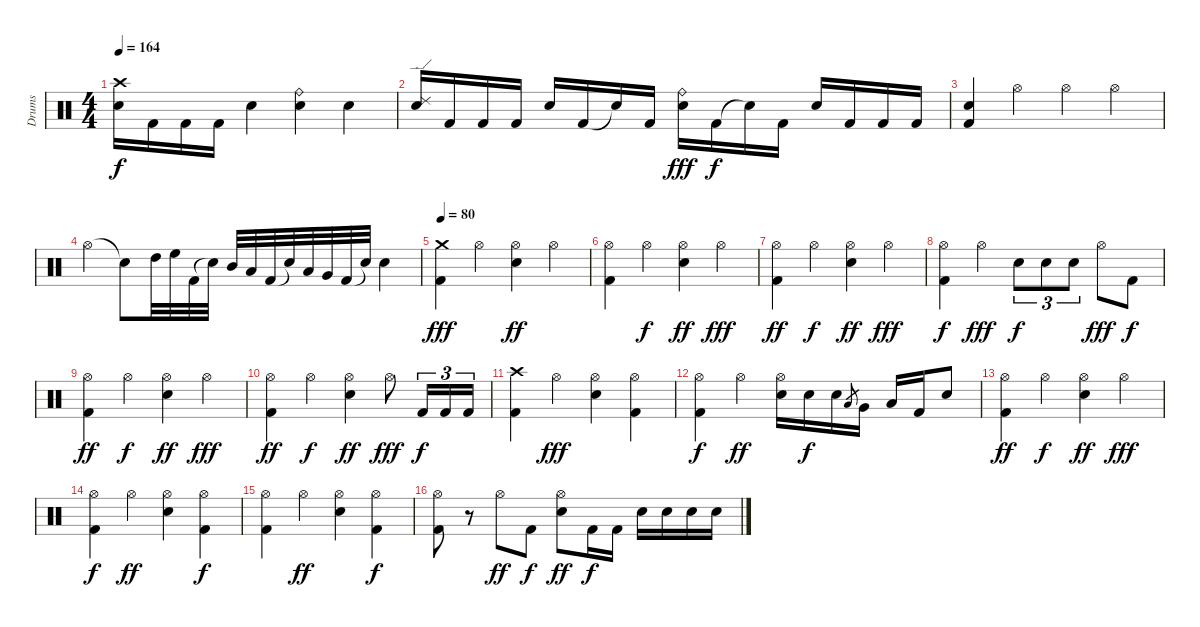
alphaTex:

\track ("Drums" "Drums") {instrument percussion}
\staff {score}
\articulation defaults
\ts (4 4)
\tempo 164
\clef neutral
\ks c
("Crash high (hit)" "Electric Snare (hit)").16{dy f} "Kick (hit) 2".16 "Kick (hit) 2".16 "Kick (hit) 2".16 "Electric Snare (hit)".4 ("Ride (bell)" "Electric Snare (hit)").4 "Electric Snare (hit)".4 |
("Ride (edge) 2" "Electric Snare (hit)").16 "Kick (hit) 2".16 "Kick (hit) 2".16 "Kick (hit) 2".16 "Electric Snare (hit)".16 "Kick (hit) 2".16 "Snare (hit)"{t}.16 "Kick (hit) 2".16 ("Ride (bell)" "Electric Snare (hit)").16{dy fff} "Kick (hit) 2".16{dy f} "Snare (hit)"{t}.16 "Kick (hit) 2".16 "Electric Snare (hit)".16 "Kick (hit) 2".16 "Kick (hit) 2".16 "Kick (hit) 2".16 |
("Electric Snare (hit)" "Kick (hit) 2").4 "Hi-Hat (open)".4 "Hi-Hat (open)".4 "Hi-Hat (open)".4 |
"Hi-Hat (open)".4 "Snare (hit)"{t}.8 "High Tom (hit)".32 "High Floor Tom (hit)".32 "Kick (hit) 2".32 "Snare (hit)"{t}.32 "Mid Tom (hit)".32 "Low Tom (hit)".32 "Kick (hit) 2".32 "Snare (hit)"{t}.32 "Low Floor Tom (hit)".32 "Very Low Tom (hit)".32 "Kick (hit) 2".32 "Snare (hit)"{t}.32 "Electric Snare (hit)".4 |
\tempo 80
("Crash medium (hit)" "Kick (hit) 2").4{dy fff} "Hi-Hat (open)".4 ("Hi-Hat (open)" "Electric Snare (hit)").4{dy ff} "Hi-Hat (open)".4 |
("Hi-Hat (open)" "Kick (hit) 2").4 "Hi-Hat (open)".4{dy f} ("Hi-Hat (open)" "Electric Snare (hit)").4{dy ff} "Hi-Hat (open)".4{dy fff} |
("Hi-Hat (open)" "Kick (hit) 2").4{dy ff} "Hi-Hat (open)".4{dy f} ("Hi-Hat (open)" "Electric Snare (hit)").4{dy ff} "Hi-Hat (open)".4{dy fff} |
("Hi-Hat (open)" "Kick (hit) 2").4{dy f} "Hi-Hat (open)".4{dy fff} "Electric Snare (hit)".8{tu (3 2) dy f} "Electric Snare (hit)".8{tu (3 2)} "Electric Snare (hit)".8{tu (3 2)} "Hi-Hat (open)".8{dy fff} "Kick (hit) 2".8{dy f} |
("Hi-Hat (open)" "Kick (hit) 2").4{dy ff} "Hi-Hat (open)".4{dy f} ("Hi-Hat (open)" "Electric Snare (hit)").4{dy ff} "Hi-Hat (open)".4{dy fff} |
("Hi-Hat (open)" "Kick (hit) 2").4{dy ff} "Hi-Hat (open)".4{dy f} ("Hi-Hat (open)" "Electric Snare (hit)").4{dy ff} "Hi-Hat (open)".8{dy fff} "Kick (hit) 2".16{tu (3 2) dy f} "Kick (hit) 2".16{tu (3 2)} "Kick (hit) 2".16{tu (3 2)} |
("Crash high (hit)" "Kick (hit) 2").4 "Hi-Hat (open)".4{dy fff} ("Hi-Hat (open)" "Electric Snare (hit)").4 ("Hi-Hat (open)" "Kick (hit) 2").4 |
("Hi-Hat (open)" "Kick (hit) 2").4{dy f} "Hi-Hat (open)".4{dy ff} ("Hi-Hat (open)" "Electric Snare (hit)").16 "Electric Snare (hit)".16{dy f} "Electric Snare (hit)".16 "Low Tom (hit)".8{gr} "Very Low Tom (hit)".16 "Low Floor Tom (hit)".16 "Kick (hit) 2".16 "Electric Snare (hit)".8 |
("Hi-Hat (open)" "Kick (hit) 2").4{dy ff} "Hi-Hat (open)".4{dy f} ("Hi-Hat (open)" "Electric Snare (hit)").4{dy ff} "Hi-Hat (open)".4{dy fff} |
("Hi-Hat (open)" "Kick (hit) 2").4{dy f} "Hi-Hat (open)".4{dy ff} ("Hi-Hat (open)" "Electric Snare (hit)").4 ("Hi-Hat (open)" "Kick (hit) 2").4{dy f} |
("Hi-Hat (open)" "Kick (hit) 2").4 "Hi-Hat (open)".4{dy ff} ("Hi-Hat (open)" "Electric Snare (hit)").4 ("Hi-Hat (open)" "Kick (hit) 2").4{dy f} |
("Hi-Hat (open)" "Kick (hit) 2").8 r.8 "Hi-Hat (open)".8{dy ff} "Kick (hit) 2".8{dy f} ("Hi-Hat (open)" "Electric Snare (hit)").8{dy ff} "Kick (hit) 2".16{dy f} "Kick (hit) 2".16 "Electric Snare (hit)".16 "Electric Snare (hit)".16 "Electric Snare (hit)".16 "Electric Snare (hit)".16
